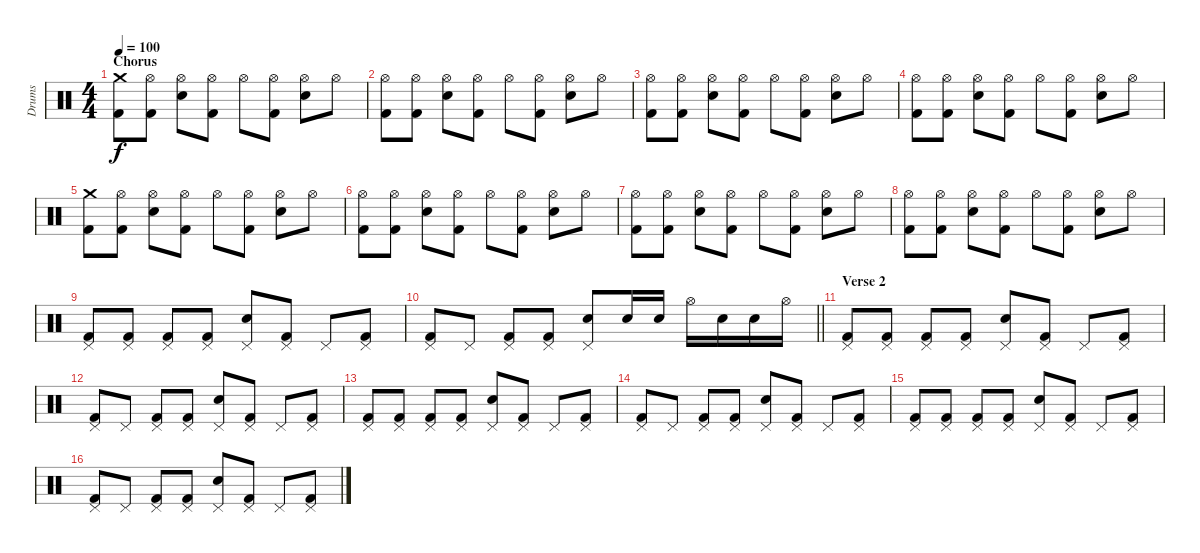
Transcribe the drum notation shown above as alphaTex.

\track ("Drums" "Drums") {instrument percussion}
\staff {score}
\articulation defaults
\ts (4 4)
\section ("" "Chorus")
\tempo 100
\clef neutral
\ks c
("Crash medium (hit)" "Kick (hit) 2").8{dy f} ("Hi-Hat (open)" "Kick (hit) 2").8 ("Hi-Hat (open)" "Electric Snare (hit)").8 ("Hi-Hat (open)" "Kick (hit) 2").8 "Hi-Hat (open)".8 ("Hi-Hat (open)" "Kick (hit) 2").8 ("Hi-Hat (open)" "Electric Snare (hit)").8 "Hi-Hat (open)".8 |
("Hi-Hat (open)" "Kick (hit) 2").8 ("Hi-Hat (open)" "Kick (hit) 2").8 ("Hi-Hat (open)" "Electric Snare (hit)").8 ("Hi-Hat (open)" "Kick (hit) 2").8 "Hi-Hat (open)".8 ("Hi-Hat (open)" "Kick (hit) 2").8 ("Hi-Hat (open)" "Electric Snare (hit)").8 "Hi-Hat (open)".8 |
("Hi-Hat (open)" "Kick (hit) 2").8 ("Hi-Hat (open)" "Kick (hit) 2").8 ("Hi-Hat (open)" "Electric Snare (hit)").8 ("Hi-Hat (open)" "Kick (hit) 2").8 "Hi-Hat (open)".8 ("Hi-Hat (open)" "Kick (hit) 2").8 ("Hi-Hat (open)" "Electric Snare (hit)").8 "Hi-Hat (open)".8 |
("Hi-Hat (open)" "Kick (hit) 2").8 ("Hi-Hat (open)" "Kick (hit) 2").8 ("Hi-Hat (open)" "Electric Snare (hit)").8 ("Hi-Hat (open)" "Kick (hit) 2").8 "Hi-Hat (open)".8 ("Hi-Hat (open)" "Kick (hit) 2").8 ("Hi-Hat (open)" "Electric Snare (hit)").8 "Hi-Hat (open)".8 |
("Crash medium (hit)" "Kick (hit) 2").8 ("Hi-Hat (open)" "Kick (hit) 2").8 ("Hi-Hat (open)" "Electric Snare (hit)").8 ("Hi-Hat (open)" "Kick (hit) 2").8 "Hi-Hat (open)".8 ("Hi-Hat (open)" "Kick (hit) 2").8 ("Hi-Hat (open)" "Electric Snare (hit)").8 "Hi-Hat (open)".8 |
("Hi-Hat (open)" "Kick (hit) 2").8 ("Hi-Hat (open)" "Kick (hit) 2").8 ("Hi-Hat (open)" "Electric Snare (hit)").8 ("Hi-Hat (open)" "Kick (hit) 2").8 "Hi-Hat (open)".8 ("Hi-Hat (open)" "Kick (hit) 2").8 ("Hi-Hat (open)" "Electric Snare (hit)").8 "Hi-Hat (open)".8 |
("Hi-Hat (open)" "Kick (hit) 2").8 ("Hi-Hat (open)" "Kick (hit) 2").8 ("Hi-Hat (open)" "Electric Snare (hit)").8 ("Hi-Hat (open)" "Kick (hit) 2").8 "Hi-Hat (open)".8 ("Hi-Hat (open)" "Kick (hit) 2").8 ("Hi-Hat (open)" "Electric Snare (hit)").8 "Hi-Hat (open)".8 |
("Hi-Hat (open)" "Kick (hit) 2").8 ("Hi-Hat (open)" "Kick (hit) 2").8 ("Hi-Hat (open)" "Electric Snare (hit)").8 ("Hi-Hat (open)" "Kick (hit) 2").8 "Hi-Hat (open)".8 ("Hi-Hat (open)" "Kick (hit) 2").8 ("Hi-Hat (open)" "Electric Snare (hit)").8 "Hi-Hat (open)".8 |
("Pedal Hi-Hat (hit)" "Kick (hit) 2").8 ("Pedal Hi-Hat (hit)" "Kick (hit) 2").8 ("Pedal Hi-Hat (hit)" "Kick (hit) 2").8 ("Pedal Hi-Hat (hit)" "Kick (hit) 2").8 ("Pedal Hi-Hat (hit)" "Electric Snare (hit)").8 ("Pedal Hi-Hat (hit)" "Kick (hit) 2").8 "Pedal Hi-Hat (hit)".8 ("Pedal Hi-Hat (hit)" "Kick (hit) 2").8 |
\barLineRight lightlight
("Pedal Hi-Hat (hit)" "Kick (hit) 2").8 "Pedal Hi-Hat (hit)".8 ("Pedal Hi-Hat (hit)" "Kick (hit) 2").8 ("Pedal Hi-Hat (hit)" "Kick (hit) 2").8 ("Pedal Hi-Hat (hit)" "Electric Snare (hit)").8 "Electric Snare (hit)".16 "Electric Snare (hit)".16 "Hi-Hat (open)".16 "Electric Snare (hit)".16 "Electric Snare (hit)".16 "Hi-Hat (open)".16 |
\section ("" "Verse 2")
("Pedal Hi-Hat (hit)" "Kick (hit) 2").8 ("Pedal Hi-Hat (hit)" "Kick (hit) 2").8 ("Pedal Hi-Hat (hit)" "Kick (hit) 2").8 ("Pedal Hi-Hat (hit)" "Kick (hit) 2").8 ("Pedal Hi-Hat (hit)" "Electric Snare (hit)").8 ("Pedal Hi-Hat (hit)" "Kick (hit) 2").8 "Pedal Hi-Hat (hit)".8 ("Pedal Hi-Hat (hit)" "Kick (hit) 2").8 |
("Pedal Hi-Hat (hit)" "Kick (hit) 2").8 "Pedal Hi-Hat (hit)".8 ("Pedal Hi-Hat (hit)" "Kick (hit) 2").8 ("Pedal Hi-Hat (hit)" "Kick (hit) 2").8 ("Pedal Hi-Hat (hit)" "Electric Snare (hit)").8 ("Pedal Hi-Hat (hit)" "Kick (hit) 2").8 "Pedal Hi-Hat (hit)".8 ("Pedal Hi-Hat (hit)" "Kick (hit) 2").8 |
("Pedal Hi-Hat (hit)" "Kick (hit) 2").8 ("Pedal Hi-Hat (hit)" "Kick (hit) 2").8 ("Pedal Hi-Hat (hit)" "Kick (hit) 2").8 ("Pedal Hi-Hat (hit)" "Kick (hit) 2").8 ("Pedal Hi-Hat (hit)" "Electric Snare (hit)").8 ("Pedal Hi-Hat (hit)" "Kick (hit) 2").8 "Pedal Hi-Hat (hit)".8 ("Pedal Hi-Hat (hit)" "Kick (hit) 2").8 |
("Pedal Hi-Hat (hit)" "Kick (hit) 2").8 "Pedal Hi-Hat (hit)".8 ("Pedal Hi-Hat (hit)" "Kick (hit) 2").8 ("Pedal Hi-Hat (hit)" "Kick (hit) 2").8 ("Pedal Hi-Hat (hit)" "Electric Snare (hit)").8 ("Pedal Hi-Hat (hit)" "Kick (hit) 2").8 "Pedal Hi-Hat (hit)".8 ("Pedal Hi-Hat (hit)" "Kick (hit) 2").8 |
("Pedal Hi-Hat (hit)" "Kick (hit) 2").8 ("Pedal Hi-Hat (hit)" "Kick (hit) 2").8 ("Pedal Hi-Hat (hit)" "Kick (hit) 2").8 ("Pedal Hi-Hat (hit)" "Kick (hit) 2").8 ("Pedal Hi-Hat (hit)" "Electric Snare (hit)").8 ("Pedal Hi-Hat (hit)" "Kick (hit) 2").8 "Pedal Hi-Hat (hit)".8 ("Pedal Hi-Hat (hit)" "Kick (hit) 2").8 |
("Pedal Hi-Hat (hit)" "Kick (hit) 2").8 "Pedal Hi-Hat (hit)".8 ("Pedal Hi-Hat (hit)" "Kick (hit) 2").8 ("Pedal Hi-Hat (hit)" "Kick (hit) 2").8 ("Pedal Hi-Hat (hit)" "Electric Snare (hit)").8 ("Pedal Hi-Hat (hit)" "Kick (hit) 2").8 "Pedal Hi-Hat (hit)".8 ("Pedal Hi-Hat (hit)" "Kick (hit) 2").8
